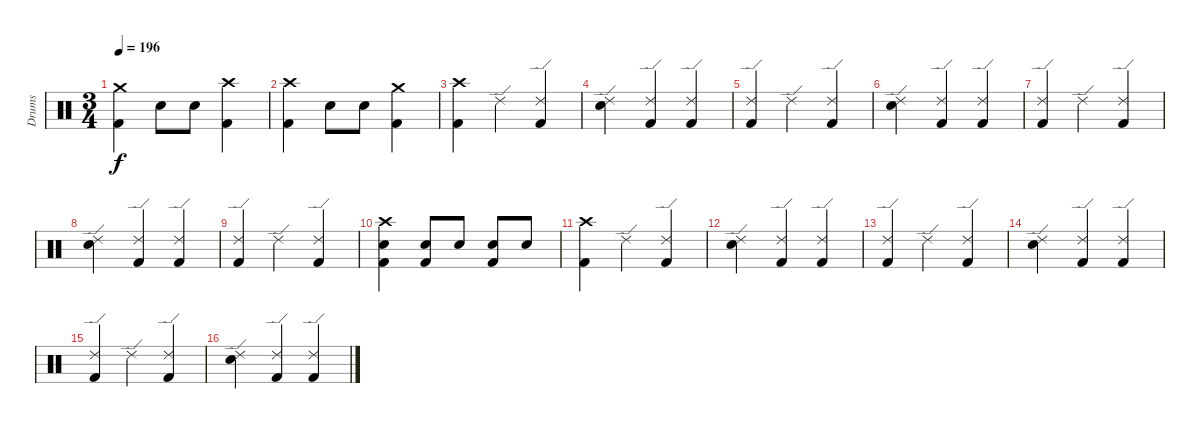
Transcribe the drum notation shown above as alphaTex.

\track ("Drums" "Drums") {instrument percussion}
\staff {score}
\articulation defaults
\ts (3 4)
\tempo 196
\clef neutral
\ks c
("Crash medium (hit)" "Kick (hit) 2").4{dy f} "Electric Snare (hit)".8 "Electric Snare (hit)".8 ("Crash high (hit)" "Kick (hit) 2").4 |
("Crash high (hit)" "Kick (hit) 2").4 "Electric Snare (hit)".8 "Electric Snare (hit)".8 ("Crash medium (hit)" "Kick (hit) 2").4 |
("Crash high (hit)" "Kick (hit) 2").4 "Ride (edge) 2".4 ("Ride (edge) 2" "Kick (hit) 2").4 |
("Ride (edge) 2" "Electric Snare (hit)").4 ("Ride (edge) 2" "Kick (hit) 2").4 ("Ride (edge) 2" "Kick (hit) 2").4 |
("Ride (edge) 2" "Kick (hit) 2").4 "Ride (edge) 2".4 ("Ride (edge) 2" "Kick (hit) 2").4 |
("Ride (edge) 2" "Electric Snare (hit)").4 ("Ride (edge) 2" "Kick (hit) 2").4 ("Ride (edge) 2" "Kick (hit) 2").4 |
("Ride (edge) 2" "Kick (hit) 2").4 "Ride (edge) 2".4 ("Ride (edge) 2" "Kick (hit) 2").4 |
("Ride (edge) 2" "Electric Snare (hit)").4 ("Ride (edge) 2" "Kick (hit) 2").4 ("Ride (edge) 2" "Kick (hit) 2").4 |
("Ride (edge) 2" "Kick (hit) 2").4 "Ride (edge) 2".4 ("Ride (edge) 2" "Kick (hit) 2").4 |
("Crash high (hit)" "Electric Snare (hit)" "Kick (hit) 2").4 ("Electric Snare (hit)" "Kick (hit) 2").8 "Electric Snare (hit)".8 ("Electric Snare (hit)" "Kick (hit) 2").8 "Electric Snare (hit)".8 |
("Crash high (hit)" "Kick (hit) 2").4 "Ride (edge) 2".4 ("Ride (edge) 2" "Kick (hit) 2").4 |
("Ride (edge) 2" "Electric Snare (hit)").4 ("Ride (edge) 2" "Kick (hit) 2").4 ("Ride (edge) 2" "Kick (hit) 2").4 |
("Ride (edge) 2" "Kick (hit) 2").4 "Ride (edge) 2".4 ("Ride (edge) 2" "Kick (hit) 2").4 |
("Ride (edge) 2" "Electric Snare (hit)").4 ("Ride (edge) 2" "Kick (hit) 2").4 ("Ride (edge) 2" "Kick (hit) 2").4 |
("Ride (edge) 2" "Kick (hit) 2").4 "Ride (edge) 2".4 ("Ride (edge) 2" "Kick (hit) 2").4 |
("Ride (edge) 2" "Electric Snare (hit)").4 ("Ride (edge) 2" "Kick (hit) 2").4 ("Ride (edge) 2" "Kick (hit) 2").4
